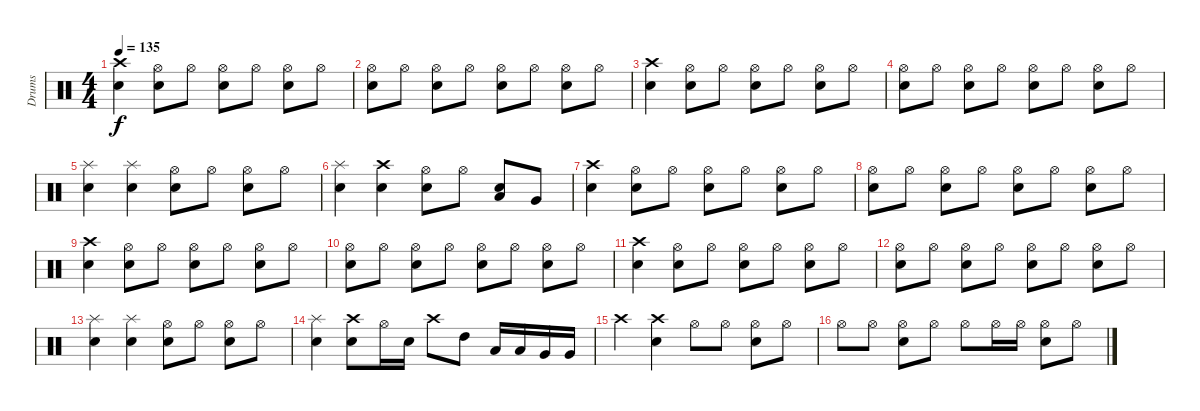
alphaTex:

\track ("Drums" "Drums") {instrument percussion}
\staff {score}
\articulation defaults
\ts (4 4)
\tempo 135
\clef neutral
\ks c
("Crash high (hit)" "Snare (hit) 2").4{dy f} ("Hi-Hat (open)" "Snare (hit) 2").8 "Hi-Hat (open)".8 ("Hi-Hat (open)" "Snare (hit) 2").8 "Hi-Hat (open)".8 ("Hi-Hat (open)" "Snare (hit) 2").8 "Hi-Hat (open)".8 |
("Hi-Hat (open)" "Snare (hit) 2").8 "Hi-Hat (open)".8 ("Hi-Hat (open)" "Snare (hit) 2").8 "Hi-Hat (open)".8 ("Hi-Hat (open)" "Snare (hit) 2").8 "Hi-Hat (open)".8 ("Hi-Hat (open)" "Snare (hit) 2").8 "Hi-Hat (open)".8 |
("Crash high (hit)" "Snare (hit) 2").4 ("Hi-Hat (open)" "Snare (hit) 2").8 "Hi-Hat (open)".8 ("Hi-Hat (open)" "Snare (hit) 2").8 "Hi-Hat (open)".8 ("Hi-Hat (open)" "Snare (hit) 2").8 "Hi-Hat (open)".8 |
("Hi-Hat (open)" "Snare (hit) 2").8 "Hi-Hat (open)".8 ("Hi-Hat (open)" "Snare (hit) 2").8 "Hi-Hat (open)".8 ("Hi-Hat (open)" "Snare (hit) 2").8 "Hi-Hat (open)".8 ("Hi-Hat (open)" "Snare (hit) 2").8 "Hi-Hat (open)".8 |
("Splash (hit)" "Snare (hit) 2").4 ("Splash (hit)" "Snare (hit) 2").4 ("Hi-Hat (open)" "Snare (hit) 2").8 "Hi-Hat (open)".8 ("Hi-Hat (open)" "Snare (hit) 2").8 "Hi-Hat (open)".8 |
("Splash (hit)" "Snare (hit) 2").4 ("Crash high (hit)" "Snare (hit) 2").4 ("Hi-Hat (open)" "Snare (hit) 2").8 "Hi-Hat (open)".8 ("Snare (hit) 2" "Low Tom (hit)").8 "Very Low Tom (hit)".8 |
("Crash high (hit)" "Snare (hit) 2").4 ("Hi-Hat (open)" "Snare (hit) 2").8 "Hi-Hat (open)".8 ("Hi-Hat (open)" "Snare (hit) 2").8 "Hi-Hat (open)".8 ("Hi-Hat (open)" "Snare (hit) 2").8 "Hi-Hat (open)".8 |
("Hi-Hat (open)" "Snare (hit) 2").8 "Hi-Hat (open)".8 ("Hi-Hat (open)" "Snare (hit) 2").8 "Hi-Hat (open)".8 ("Hi-Hat (open)" "Snare (hit) 2").8 "Hi-Hat (open)".8 ("Hi-Hat (open)" "Snare (hit) 2").8 "Hi-Hat (open)".8 |
("Crash high (hit)" "Snare (hit) 2").4 ("Hi-Hat (open)" "Snare (hit) 2").8 "Hi-Hat (open)".8 ("Hi-Hat (open)" "Snare (hit) 2").8 "Hi-Hat (open)".8 ("Hi-Hat (open)" "Snare (hit) 2").8 "Hi-Hat (open)".8 |
("Hi-Hat (open)" "Snare (hit) 2").8 "Hi-Hat (open)".8 ("Hi-Hat (open)" "Snare (hit) 2").8 "Hi-Hat (open)".8 ("Hi-Hat (open)" "Snare (hit) 2").8 "Hi-Hat (open)".8 ("Hi-Hat (open)" "Snare (hit) 2").8 "Hi-Hat (open)".8 |
("Crash high (hit)" "Snare (hit) 2").4 ("Hi-Hat (open)" "Snare (hit) 2").8 "Hi-Hat (open)".8 ("Hi-Hat (open)" "Snare (hit) 2").8 "Hi-Hat (open)".8 ("Hi-Hat (open)" "Snare (hit) 2").8 "Hi-Hat (open)".8 |
("Hi-Hat (open)" "Snare (hit) 2").8 "Hi-Hat (open)".8 ("Hi-Hat (open)" "Snare (hit) 2").8 "Hi-Hat (open)".8 ("Hi-Hat (open)" "Snare (hit) 2").8 "Hi-Hat (open)".8 ("Hi-Hat (open)" "Snare (hit) 2").8 "Hi-Hat (open)".8 |
("Splash (hit)" "Snare (hit) 2").4 ("Splash (hit)" "Snare (hit) 2").4 ("Hi-Hat (open)" "Snare (hit) 2").8 "Hi-Hat (open)".8 ("Hi-Hat (open)" "Snare (hit) 2").8 "Hi-Hat (open)".8 |
("Splash (hit)" "Snare (hit) 2").4 ("Crash high (hit)" "Snare (hit) 2").8 "Hi-Hat (open)".16 "Snare (hit) 2".16 "Crash high (hit)".8 "High Tom (hit)".8 "Low Tom (hit)".16 "Low Tom (hit)".16 "Very Low Tom (hit)".16 "Very Low Tom (hit)".16 |
"Crash high (hit)".4 ("Crash high (hit)" "Snare (hit) 2").4 "Hi-Hat (open)".8 "Hi-Hat (open)".8 ("Hi-Hat (open)" "Snare (hit) 2").8 "Hi-Hat (open)".8 |
"Hi-Hat (open)".8 "Hi-Hat (open)".8 ("Hi-Hat (open)" "Snare (hit) 2").8 "Hi-Hat (open)".8 "Hi-Hat (open)".8 "Hi-Hat (open)".16 "Hi-Hat (open)".16 ("Hi-Hat (open)" "Snare (hit) 2").8 "Hi-Hat (open)".8
